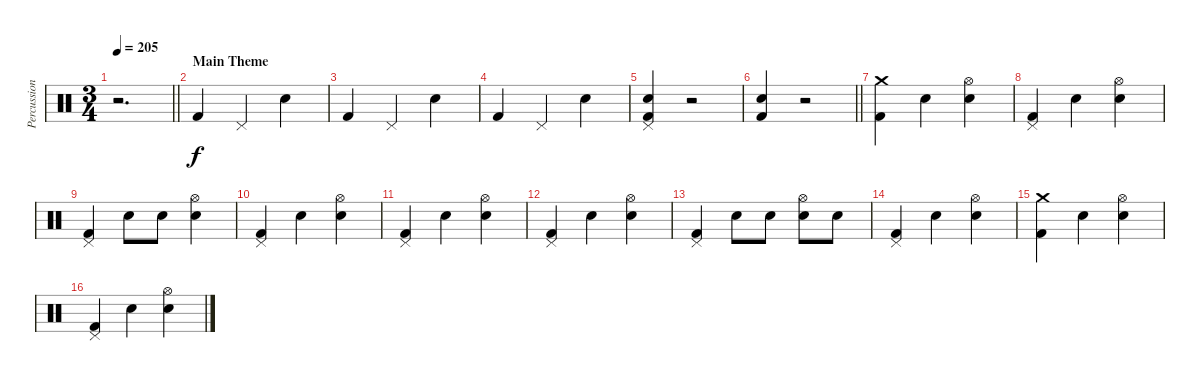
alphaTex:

\track ("Percussion" "Percussion") {instrument percussion}
\staff {score}
\articulation defaults
\ts (3 4)
\tempo 205
\clef neutral
\barLineRight lightlight
\ks c
r.2{d dy f} |
\section ("" "Main Theme")
"Kick (hit) 2".4 "Pedal Hi-Hat (hit)".4 "Electric Snare (hit)".4 |
"Kick (hit) 2".4 "Pedal Hi-Hat (hit)".4 "Electric Snare (hit)".4 |
"Kick (hit) 2".4 "Pedal Hi-Hat (hit)".4 "Electric Snare (hit)".4 |
("Pedal Hi-Hat (hit)" "Electric Snare (hit)" "Kick (hit) 2").4 r.2 |
\barLineRight lightlight
("Electric Snare (hit)" "Kick (hit) 2").4 r.2 |
\section ("" "")
("Crash medium (hit)" "Kick (hit) 2").4 "Electric Snare (hit)".4 ("Hi-Hat (open)" "Electric Snare (hit)").4 |
("Pedal Hi-Hat (hit)" "Kick (hit) 2").4 "Electric Snare (hit)".4 ("Hi-Hat (open)" "Electric Snare (hit)").4 |
("Pedal Hi-Hat (hit)" "Kick (hit) 2").4 "Electric Snare (hit)".8 "Electric Snare (hit)".8 ("Hi-Hat (open)" "Electric Snare (hit)").4 |
("Pedal Hi-Hat (hit)" "Kick (hit) 2").4 "Electric Snare (hit)".4 ("Hi-Hat (open)" "Electric Snare (hit)").4 |
("Pedal Hi-Hat (hit)" "Kick (hit) 2").4 "Electric Snare (hit)".4 ("Hi-Hat (open)" "Electric Snare (hit)").4 |
("Pedal Hi-Hat (hit)" "Kick (hit) 2").4 "Electric Snare (hit)".4 ("Hi-Hat (open)" "Electric Snare (hit)").4 |
("Pedal Hi-Hat (hit)" "Kick (hit) 2").4 "Electric Snare (hit)".8 "Electric Snare (hit)".8 ("Hi-Hat (open)" "Electric Snare (hit)").8 "Electric Snare (hit)".8 |
("Pedal Hi-Hat (hit)" "Kick (hit) 2").4 "Electric Snare (hit)".4 ("Hi-Hat (open)" "Electric Snare (hit)").4 |
("Crash medium (hit)" "Kick (hit) 2").4 "Electric Snare (hit)".4 ("Hi-Hat (open)" "Electric Snare (hit)").4 |
("Pedal Hi-Hat (hit)" "Kick (hit) 2").4 "Electric Snare (hit)".4 ("Hi-Hat (open)" "Electric Snare (hit)").4
